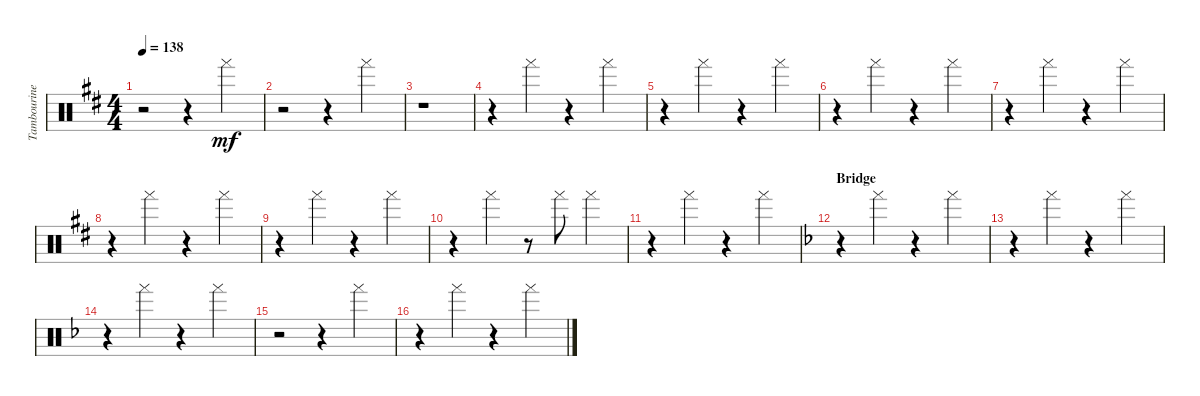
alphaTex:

\track ("Tambourine" "Tambourine") {instrument percussion}
\staff {score}
\articulation defaults
\ts (4 4)
\tempo 138
\clef neutral
\ks d
r.2{dy mf} r.4 "Tambourine (hand)".4 |
r.2 r.4 "Tambourine (hand)".4 |
r.1 |
r.4 "Tambourine (hand)".4 r.4 "Tambourine (hand)".4 |
r.4 "Tambourine (hand)".4 r.4 "Tambourine (hand)".4 |
r.4 "Tambourine (hand)".4 r.4 "Tambourine (hand)".4 |
r.4 "Tambourine (hand)".4 r.4 "Tambourine (hand)".4 |
r.4 "Tambourine (hand)".4 r.4 "Tambourine (hand)".4 |
r.4 "Tambourine (hand)".4 r.4 "Tambourine (hand)".4 |
r.4 "Tambourine (hand)".4 r.8 "Tambourine (hand)".8 "Tambourine (hand)".4 |
r.4 "Tambourine (hand)".4 r.4 "Tambourine (hand)".4 |
\section ("" "Bridge")
\ks f
r.4 "Tambourine (hand)".4 r.4 "Tambourine (hand)".4 |
r.4 "Tambourine (hand)".4 r.4 "Tambourine (hand)".4 |
r.4 "Tambourine (hand)".4 r.4 "Tambourine (hand)".4 |
r.2 r.4 "Tambourine (hand)".4 |
r.4 "Tambourine (hand)".4 r.4 "Tambourine (hand)".4
